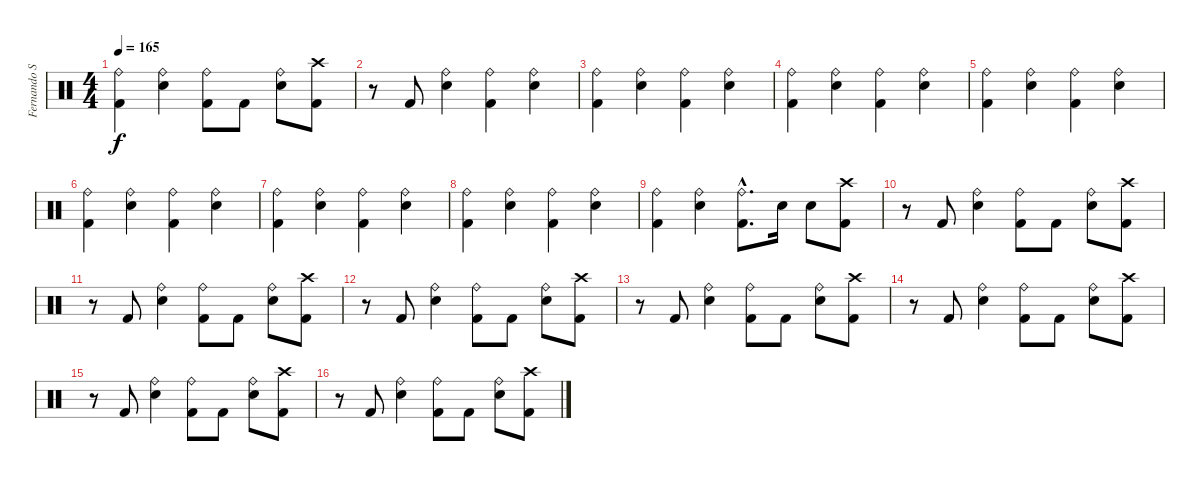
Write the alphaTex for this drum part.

\track ("Fernando Scarcella" "Fernando S") {instrument percussion}
\staff {score}
\articulation defaults
\ts (4 4)
\tempo 165
\clef neutral
\ks c
("Ride (bell)" "Kick (hit) 2").4{dy f} ("Ride (bell)" "Snare (hit) 2").4 ("Ride (bell)" "Kick (hit) 2").8 "Kick (hit) 2".8 ("Ride (bell)" "Snare (hit) 2").8 ("Crash high (hit)" "Kick (hit) 2").8 |
r.8 "Kick (hit) 2".8 ("Ride (bell)" "Snare (hit) 2").4 ("Ride (bell)" "Kick (hit) 2").4 ("Ride (bell)" "Snare (hit) 2").4 |
("Ride (bell)" "Kick (hit) 2").4 ("Ride (bell)" "Snare (hit) 2").4 ("Ride (bell)" "Kick (hit) 2").4 ("Ride (bell)" "Snare (hit) 2").4 |
("Ride (bell)" "Kick (hit) 2").4 ("Ride (bell)" "Snare (hit) 2").4 ("Ride (bell)" "Kick (hit) 2").4 ("Ride (bell)" "Snare (hit) 2").4 |
("Ride (bell)" "Kick (hit) 2").4 ("Ride (bell)" "Snare (hit) 2").4 ("Ride (bell)" "Kick (hit) 2").4 ("Ride (bell)" "Snare (hit) 2").4 |
("Ride (bell)" "Kick (hit) 2").4 ("Ride (bell)" "Snare (hit) 2").4 ("Ride (bell)" "Kick (hit) 2").4 ("Ride (bell)" "Snare (hit) 2").4 |
("Ride (bell)" "Kick (hit) 2").4 ("Ride (bell)" "Snare (hit) 2").4 ("Ride (bell)" "Kick (hit) 2").4 ("Ride (bell)" "Snare (hit) 2").4 |
("Ride (bell)" "Kick (hit) 2").4 ("Ride (bell)" "Snare (hit) 2").4 ("Ride (bell)" "Kick (hit) 2").4 ("Ride (bell)" "Snare (hit) 2").4 |
("Ride (bell)" "Kick (hit) 2").4 ("Ride (bell)" "Snare (hit) 2").4 ("Ride (bell)"{hac} "Kick (hit) 2"{hac}).8{d} "Snare (hit) 2".16 "Snare (hit) 2".8 ("Crash high (hit)" "Kick (hit) 2").8 |
r.8 "Kick (hit) 2".8 ("Ride (bell)" "Snare (hit) 2").4 ("Ride (bell)" "Kick (hit) 2").8 "Kick (hit) 2".8 ("Ride (bell)" "Snare (hit) 2").8 ("Crash high (hit)" "Kick (hit) 2").8 |
r.8 "Kick (hit) 2".8 ("Ride (bell)" "Snare (hit) 2").4 ("Ride (bell)" "Kick (hit) 2").8 "Kick (hit) 2".8 ("Ride (bell)" "Snare (hit) 2").8 ("Crash high (hit)" "Kick (hit) 2").8 |
r.8 "Kick (hit) 2".8 ("Ride (bell)" "Snare (hit) 2").4 ("Ride (bell)" "Kick (hit) 2").8 "Kick (hit) 2".8 ("Ride (bell)" "Snare (hit) 2").8 ("Crash high (hit)" "Kick (hit) 2").8 |
r.8 "Kick (hit) 2".8 ("Ride (bell)" "Snare (hit) 2").4 ("Ride (bell)" "Kick (hit) 2").8 "Kick (hit) 2".8 ("Ride (bell)" "Snare (hit) 2").8 ("Crash high (hit)" "Kick (hit) 2").8 |
r.8 "Kick (hit) 2".8 ("Ride (bell)" "Snare (hit) 2").4 ("Ride (bell)" "Kick (hit) 2").8 "Kick (hit) 2".8 ("Ride (bell)" "Snare (hit) 2").8 ("Crash high (hit)" "Kick (hit) 2").8 |
r.8 "Kick (hit) 2".8 ("Ride (bell)" "Snare (hit) 2").4 ("Ride (bell)" "Kick (hit) 2").8 "Kick (hit) 2".8 ("Ride (bell)" "Snare (hit) 2").8 ("Crash high (hit)" "Kick (hit) 2").8 |
r.8 "Kick (hit) 2".8 ("Ride (bell)" "Snare (hit) 2").4 ("Ride (bell)" "Kick (hit) 2").8 "Kick (hit) 2".8 ("Ride (bell)" "Snare (hit) 2").8 ("Crash high (hit)" "Kick (hit) 2").8
